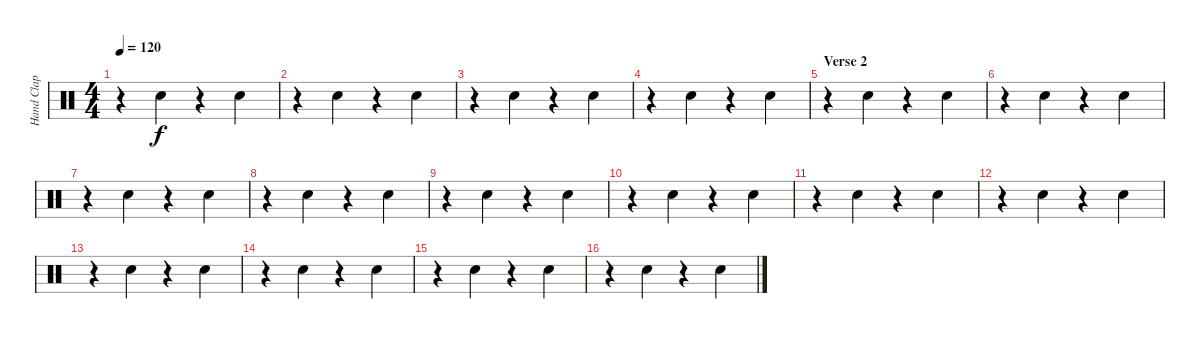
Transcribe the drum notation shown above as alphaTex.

\track ("Hand Clap" "Hand Clap") {instrument percussion}
\staff {score}
\articulation defaults
\ts (4 4)
\tempo 120
\clef neutral
\ks c
r.4{dy f} "Hand Clap (hit)".4 r.4 "Hand Clap (hit)".4 |
r.4 "Hand Clap (hit)".4 r.4 "Hand Clap (hit)".4 |
r.4 "Hand Clap (hit)".4 r.4 "Hand Clap (hit)".4 |
r.4 "Hand Clap (hit)".4 r.4 "Hand Clap (hit)".4 |
\section ("" "Verse 2")
r.4 "Hand Clap (hit)".4 r.4 "Hand Clap (hit)".4 |
r.4 "Hand Clap (hit)".4 r.4 "Hand Clap (hit)".4 |
r.4 "Hand Clap (hit)".4 r.4 "Hand Clap (hit)".4 |
r.4 "Hand Clap (hit)".4 r.4 "Hand Clap (hit)".4 |
r.4 "Hand Clap (hit)".4 r.4 "Hand Clap (hit)".4 |
r.4 "Hand Clap (hit)".4 r.4 "Hand Clap (hit)".4 |
r.4 "Hand Clap (hit)".4 r.4 "Hand Clap (hit)".4 |
r.4 "Hand Clap (hit)".4 r.4 "Hand Clap (hit)".4 |
r.4 "Hand Clap (hit)".4 r.4 "Hand Clap (hit)".4 |
r.4 "Hand Clap (hit)".4 r.4 "Hand Clap (hit)".4 |
r.4 "Hand Clap (hit)".4 r.4 "Hand Clap (hit)".4 |
r.4 "Hand Clap (hit)".4 r.4 "Hand Clap (hit)".4
